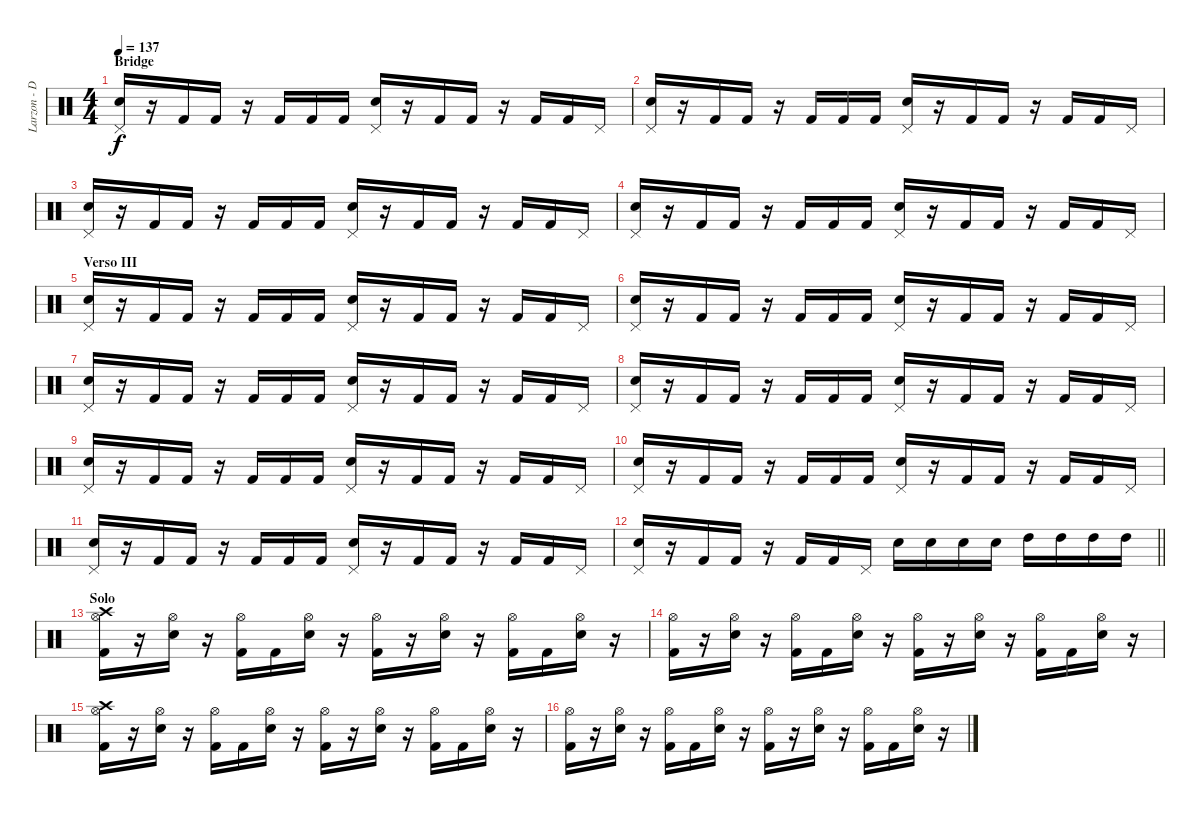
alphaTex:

\track ("Larzon - Drums" "Larzon - D") {instrument percussion}
\staff {score}
\articulation defaults
\ts (4 4)
\section ("" "Bridge")
\tempo 137
\clef neutral
\ks c
("Snare (hit) 2" "Pedal Hi-Hat (hit)").16{dy f} r.16 "Kick (hit) 2".16 "Kick (hit) 2".16 r.16 "Kick (hit) 2".16 "Kick (hit) 2".16 "Kick (hit) 2".16 ("Snare (hit) 2" "Pedal Hi-Hat (hit)").16 r.16 "Kick (hit) 2".16 "Kick (hit) 2".16 r.16 "Kick (hit) 2".16 "Kick (hit) 2".16 "Pedal Hi-Hat (hit)".16 |
("Snare (hit) 2" "Pedal Hi-Hat (hit)").16 r.16 "Kick (hit) 2".16 "Kick (hit) 2".16 r.16 "Kick (hit) 2".16 "Kick (hit) 2".16 "Kick (hit) 2".16 ("Snare (hit) 2" "Pedal Hi-Hat (hit)").16 r.16 "Kick (hit) 2".16 "Kick (hit) 2".16 r.16 "Kick (hit) 2".16 "Kick (hit) 2".16 "Pedal Hi-Hat (hit)".16 |
("Snare (hit) 2" "Pedal Hi-Hat (hit)").16 r.16 "Kick (hit) 2".16 "Kick (hit) 2".16 r.16 "Kick (hit) 2".16 "Kick (hit) 2".16 "Kick (hit) 2".16 ("Snare (hit) 2" "Pedal Hi-Hat (hit)").16 r.16 "Kick (hit) 2".16 "Kick (hit) 2".16 r.16 "Kick (hit) 2".16 "Kick (hit) 2".16 "Pedal Hi-Hat (hit)".16 |
("Snare (hit) 2" "Pedal Hi-Hat (hit)").16 r.16 "Kick (hit) 2".16 "Kick (hit) 2".16 r.16 "Kick (hit) 2".16 "Kick (hit) 2".16 "Kick (hit) 2".16 ("Snare (hit) 2" "Pedal Hi-Hat (hit)").16 r.16 "Kick (hit) 2".16 "Kick (hit) 2".16 r.16 "Kick (hit) 2".16 "Kick (hit) 2".16 "Pedal Hi-Hat (hit)".16 |
\section ("" "Verso III")
("Snare (hit) 2" "Pedal Hi-Hat (hit)").16 r.16 "Kick (hit) 2".16 "Kick (hit) 2".16 r.16 "Kick (hit) 2".16 "Kick (hit) 2".16 "Kick (hit) 2".16 ("Snare (hit) 2" "Pedal Hi-Hat (hit)").16 r.16 "Kick (hit) 2".16 "Kick (hit) 2".16 r.16 "Kick (hit) 2".16 "Kick (hit) 2".16 "Pedal Hi-Hat (hit)".16 |
("Snare (hit) 2" "Pedal Hi-Hat (hit)").16 r.16 "Kick (hit) 2".16 "Kick (hit) 2".16 r.16 "Kick (hit) 2".16 "Kick (hit) 2".16 "Kick (hit) 2".16 ("Snare (hit) 2" "Pedal Hi-Hat (hit)").16 r.16 "Kick (hit) 2".16 "Kick (hit) 2".16 r.16 "Kick (hit) 2".16 "Kick (hit) 2".16 "Pedal Hi-Hat (hit)".16 |
("Snare (hit) 2" "Pedal Hi-Hat (hit)").16 r.16 "Kick (hit) 2".16 "Kick (hit) 2".16 r.16 "Kick (hit) 2".16 "Kick (hit) 2".16 "Kick (hit) 2".16 ("Snare (hit) 2" "Pedal Hi-Hat (hit)").16 r.16 "Kick (hit) 2".16 "Kick (hit) 2".16 r.16 "Kick (hit) 2".16 "Kick (hit) 2".16 "Pedal Hi-Hat (hit)".16 |
("Snare (hit) 2" "Pedal Hi-Hat (hit)").16 r.16 "Kick (hit) 2".16 "Kick (hit) 2".16 r.16 "Kick (hit) 2".16 "Kick (hit) 2".16 "Kick (hit) 2".16 ("Snare (hit) 2" "Pedal Hi-Hat (hit)").16 r.16 "Kick (hit) 2".16 "Kick (hit) 2".16 r.16 "Kick (hit) 2".16 "Kick (hit) 2".16 "Pedal Hi-Hat (hit)".16 |
("Snare (hit) 2" "Pedal Hi-Hat (hit)").16 r.16 "Kick (hit) 2".16 "Kick (hit) 2".16 r.16 "Kick (hit) 2".16 "Kick (hit) 2".16 "Kick (hit) 2".16 ("Snare (hit) 2" "Pedal Hi-Hat (hit)").16 r.16 "Kick (hit) 2".16 "Kick (hit) 2".16 r.16 "Kick (hit) 2".16 "Kick (hit) 2".16 "Pedal Hi-Hat (hit)".16 |
("Snare (hit) 2" "Pedal Hi-Hat (hit)").16 r.16 "Kick (hit) 2".16 "Kick (hit) 2".16 r.16 "Kick (hit) 2".16 "Kick (hit) 2".16 "Kick (hit) 2".16 ("Snare (hit) 2" "Pedal Hi-Hat (hit)").16 r.16 "Kick (hit) 2".16 "Kick (hit) 2".16 r.16 "Kick (hit) 2".16 "Kick (hit) 2".16 "Pedal Hi-Hat (hit)".16 |
("Snare (hit) 2" "Pedal Hi-Hat (hit)").16 r.16 "Kick (hit) 2".16 "Kick (hit) 2".16 r.16 "Kick (hit) 2".16 "Kick (hit) 2".16 "Kick (hit) 2".16 ("Snare (hit) 2" "Pedal Hi-Hat (hit)").16 r.16 "Kick (hit) 2".16 "Kick (hit) 2".16 r.16 "Kick (hit) 2".16 "Kick (hit) 2".16 "Pedal Hi-Hat (hit)".16 |
\barLineRight lightlight
("Snare (hit) 2" "Pedal Hi-Hat (hit)").16 r.16 "Kick (hit) 2".16 "Kick (hit) 2".16 r.16 "Kick (hit) 2".16 "Kick (hit) 2".16 "Pedal Hi-Hat (hit)".16 "Snare (hit) 2".16 "Snare (hit) 2".16 "Snare (hit) 2".16 "Snare (hit) 2".16 "High Tom (hit)".16 "High Tom (hit)".16 "High Tom (hit)".16 "High Tom (hit)".16 |
\section ("" "Solo")
("Kick (hit) 2" "Crash high (hit)" "Hi-Hat (open)").16 r.16 ("Snare (hit) 2" "Hi-Hat (open)").16 r.16 ("Kick (hit) 2" "Hi-Hat (open)").16 "Kick (hit) 2".16 ("Snare (hit) 2" "Hi-Hat (open)").16 r.16 ("Kick (hit) 2" "Hi-Hat (open)").16 r.16 ("Snare (hit) 2" "Hi-Hat (open)").16 r.16 ("Kick (hit) 2" "Hi-Hat (open)").16 "Kick (hit) 2".16 ("Snare (hit) 2" "Hi-Hat (open)").16 r.16 |
("Kick (hit) 2" "Hi-Hat (open)").16 r.16 ("Snare (hit) 2" "Hi-Hat (open)").16 r.16 ("Kick (hit) 2" "Hi-Hat (open)").16 "Kick (hit) 2".16 ("Snare (hit) 2" "Hi-Hat (open)").16 r.16 ("Kick (hit) 2" "Hi-Hat (open)").16 r.16 ("Snare (hit) 2" "Hi-Hat (open)").16 r.16 ("Kick (hit) 2" "Hi-Hat (open)").16 "Kick (hit) 2".16 ("Snare (hit) 2" "Hi-Hat (open)").16 r.16 |
("Kick (hit) 2" "Crash high (hit)" "Hi-Hat (open)").16 r.16 ("Snare (hit) 2" "Hi-Hat (open)").16 r.16 ("Kick (hit) 2" "Hi-Hat (open)").16 "Kick (hit) 2".16 ("Snare (hit) 2" "Hi-Hat (open)").16 r.16 ("Kick (hit) 2" "Hi-Hat (open)").16 r.16 ("Snare (hit) 2" "Hi-Hat (open)").16 r.16 ("Kick (hit) 2" "Hi-Hat (open)").16 "Kick (hit) 2".16 ("Snare (hit) 2" "Hi-Hat (open)").16 r.16 |
("Kick (hit) 2" "Hi-Hat (open)").16 r.16 ("Snare (hit) 2" "Hi-Hat (open)").16 r.16 ("Kick (hit) 2" "Hi-Hat (open)").16 "Kick (hit) 2".16 ("Snare (hit) 2" "Hi-Hat (open)").16 r.16 ("Kick (hit) 2" "Hi-Hat (open)").16 r.16 ("Snare (hit) 2" "Hi-Hat (open)").16 r.16 ("Kick (hit) 2" "Hi-Hat (open)").16 "Kick (hit) 2".16 ("Snare (hit) 2" "Hi-Hat (open)").16 r.16
